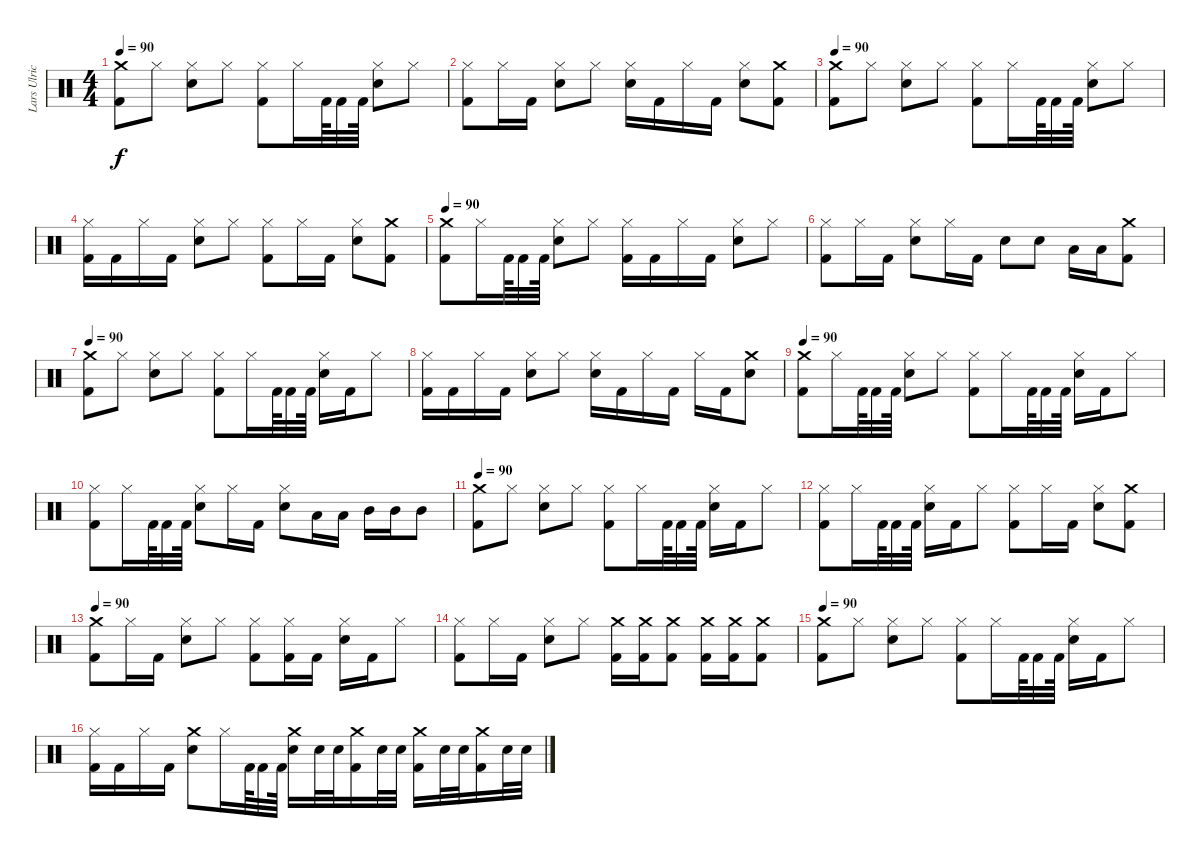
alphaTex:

\track ("Lars Ulrich (Drums)" "Lars Ulric") {instrument percussion}
\staff {score}
\articulation defaults
\ts (4 4)
\tempo 90
\clef neutral
\ks c
("Crash medium (hit)" "Kick (hit) 2").8{dy f} "Hi-Hat (closed)".8 ("Snare (hit) 2" "Hi-Hat (closed)").8 "Hi-Hat (closed)".8 ("Hi-Hat (closed)" "Kick (hit) 2").8 "Hi-Hat (closed)".16 "Kick (hit) 2".64 "Kick (hit) 2".32 "Kick (hit) 2".64 ("Snare (hit) 2" "Hi-Hat (closed)").8 "Hi-Hat (closed)".8 |
("Hi-Hat (closed)" "Kick (hit) 2").8 "Hi-Hat (closed)".16 "Kick (hit) 2".16 ("Snare (hit) 2" "Hi-Hat (closed)").8 "Hi-Hat (closed)".8 ("Snare (hit) 2" "Hi-Hat (closed)").16 "Kick (hit) 2".16 "Hi-Hat (closed)".16 "Kick (hit) 2".16 ("Snare (hit) 2" "Hi-Hat (closed)").8 ("Crash medium (hit)" "Kick (hit) 2").8 |
\tempo 90
("Kick (hit) 2" "Crash medium (hit)").8 "Hi-Hat (closed)".8 ("Snare (hit) 2" "Hi-Hat (closed)").8 "Hi-Hat (closed)".8 ("Hi-Hat (closed)" "Kick (hit) 2").8 "Hi-Hat (closed)".16 "Kick (hit) 2".64 "Kick (hit) 2".32 "Kick (hit) 2".64 ("Snare (hit) 2" "Hi-Hat (closed)").8 "Hi-Hat (closed)".8 |
("Kick (hit) 2" "Hi-Hat (closed)").16 "Kick (hit) 2".16 "Hi-Hat (closed)".16 "Kick (hit) 2".16 ("Snare (hit) 2" "Hi-Hat (closed)").8 "Hi-Hat (closed)".8 ("Kick (hit) 2" "Hi-Hat (closed)").8 "Hi-Hat (closed)".16 "Kick (hit) 2".16 ("Snare (hit) 2" "Hi-Hat (closed)").8 ("Kick (hit) 2" "Crash medium (hit)").8 |
\tempo 90
("Crash medium (hit)" "Kick (hit) 2").8 "Hi-Hat (closed)".16 "Kick (hit) 2".64 "Kick (hit) 2".32 "Kick (hit) 2".64 ("Snare (hit) 2" "Hi-Hat (closed)").8 "Hi-Hat (closed)".8 ("Kick (hit) 2" "Hi-Hat (closed)").16 "Kick (hit) 2".16 "Hi-Hat (closed)".16 "Kick (hit) 2".16 ("Snare (hit) 2" "Hi-Hat (closed)").8 "Hi-Hat (closed)".8 |
("Kick (hit) 2" "Hi-Hat (closed)").8 "Hi-Hat (closed)".16 "Kick (hit) 2".16 ("Snare (hit) 2" "Hi-Hat (closed)").8 "Hi-Hat (closed)".16 "Kick (hit) 2".16 "Snare (hit) 2".8 "Snare (hit) 2".8 "Low Tom (hit)".16 "Low Tom (hit)".16 ("Crash medium (hit)" "Kick (hit) 2").8 |
\tempo 90
("Crash medium (hit)" "Kick (hit) 2").8 "Hi-Hat (closed)".8 ("Snare (hit) 2" "Hi-Hat (closed)").8 "Hi-Hat (closed)".8 ("Hi-Hat (closed)" "Kick (hit) 2").8 "Hi-Hat (closed)".16 "Kick (hit) 2".64 "Kick (hit) 2".32 "Kick (hit) 2".64 ("Snare (hit) 2" "Hi-Hat (closed)").16 "Kick (hit) 2".16 "Hi-Hat (closed)".8 |
("Kick (hit) 2" "Hi-Hat (closed)").16 "Kick (hit) 2".16 "Hi-Hat (closed)".16 "Kick (hit) 2".16 ("Snare (hit) 2" "Hi-Hat (closed)").8 "Hi-Hat (closed)".8 ("Hi-Hat (closed)" "Snare (hit) 2").16 "Kick (hit) 2".16 "Hi-Hat (closed)".16 "Kick (hit) 2".16 "Hi-Hat (closed)".16 "Kick (hit) 2".16 ("Crash medium (hit)" "Snare (hit) 2").8 |
\tempo 90
("Crash medium (hit)" "Kick (hit) 2").8 "Hi-Hat (closed)".16 "Kick (hit) 2".64 "Kick (hit) 2".32 "Kick (hit) 2".64 ("Snare (hit) 2" "Hi-Hat (closed)").8 "Hi-Hat (closed)".8 ("Hi-Hat (closed)" "Kick (hit) 2").8 "Hi-Hat (closed)".16 "Kick (hit) 2".64 "Kick (hit) 2".32 "Kick (hit) 2".64 ("Snare (hit) 2" "Hi-Hat (closed)").16 "Kick (hit) 2".16 "Hi-Hat (closed)".8 |
("Hi-Hat (closed)" "Kick (hit) 2").8 "Hi-Hat (closed)".16 "Kick (hit) 2".64 "Kick (hit) 2".32 "Kick (hit) 2".64 ("Snare (hit) 2" "Hi-Hat (closed)").8 "Hi-Hat (closed)".16 "Kick (hit) 2".16 ("Snare (hit) 2" "Hi-Hat (closed)").8 "Low Tom (hit)".16 "Low Tom (hit)".16 "Mid Tom (hit)".16 "Mid Tom (hit)".16 "Mid Tom (hit)".8 |
\tempo 90
("Crash medium (hit)" "Kick (hit) 2").8 "Hi-Hat (closed)".8 ("Snare (hit) 2" "Hi-Hat (closed)").8 "Hi-Hat (closed)".8 ("Hi-Hat (closed)" "Kick (hit) 2").8 "Hi-Hat (closed)".16 "Kick (hit) 2".64 "Kick (hit) 2".32 "Kick (hit) 2".64 ("Snare (hit) 2" "Hi-Hat (closed)").16 "Kick (hit) 2".16 "Hi-Hat (closed)".8 |
("Hi-Hat (closed)" "Kick (hit) 2").8 "Hi-Hat (closed)".16 "Kick (hit) 2".64 "Kick (hit) 2".32 "Kick (hit) 2".64 ("Snare (hit) 2" "Hi-Hat (closed)").16 "Kick (hit) 2".16 "Hi-Hat (closed)".8 ("Hi-Hat (closed)" "Kick (hit) 2").8 "Hi-Hat (closed)".16 "Kick (hit) 2".16 ("Snare (hit) 2" "Hi-Hat (closed)").8 ("Crash medium (hit)" "Kick (hit) 2").8 |
\tempo 90
("Kick (hit) 2" "Crash medium (hit)").8 "Hi-Hat (closed)".16 "Kick (hit) 2".16 ("Snare (hit) 2" "Hi-Hat (closed)").8 "Hi-Hat (closed)".8 ("Hi-Hat (closed)" "Kick (hit) 2").8 ("Hi-Hat (closed)" "Kick (hit) 2").16 "Kick (hit) 2".16 ("Snare (hit) 2" "Hi-Hat (closed)").16 "Kick (hit) 2".16 "Hi-Hat (closed)".8 |
("Hi-Hat (closed)" "Kick (hit) 2").8 "Hi-Hat (closed)".16 "Kick (hit) 2".16 ("Snare (hit) 2" "Hi-Hat (closed)").8 "Hi-Hat (closed)".8 ("Kick (hit) 2" "Crash medium (hit)").16 ("Kick (hit) 2" "Crash medium (hit)").16 ("Kick (hit) 2" "Crash medium (hit)").8 ("Kick (hit) 2" "Crash medium (hit)").16 ("Kick (hit) 2" "Crash medium (hit)").16 ("Kick (hit) 2" "Crash medium (hit)").8 |
\tempo 90
("Crash medium (hit)" "Kick (hit) 2").8 "Hi-Hat (closed)".8 ("Snare (hit) 2" "Hi-Hat (closed)").8 "Hi-Hat (closed)".8 ("Hi-Hat (closed)" "Kick (hit) 2").8 "Hi-Hat (closed)".16 "Kick (hit) 2".64 "Kick (hit) 2".32 "Kick (hit) 2".64 ("Snare (hit) 2" "Hi-Hat (closed)").16 "Kick (hit) 2".16 "Hi-Hat (closed)".8 |
("Hi-Hat (closed)" "Kick (hit) 2").16 "Kick (hit) 2".16 "Hi-Hat (closed)".16 "Kick (hit) 2".16 ("Crash medium (hit)" "Snare (hit) 2").8 "Hi-Hat (closed)".16 "Kick (hit) 2".64 "Kick (hit) 2".32 "Kick (hit) 2".64 ("Snare (hit) 2" "Crash medium (hit)").16 "Snare (hit) 2".32 "Snare (hit) 2".32 ("Crash medium (hit)" "Kick (hit) 2").16 "Snare (hit) 2".32 "Snare (hit) 2".32 ("Crash medium (hit)" "Kick (hit) 2").16 "Snare (hit) 2".32 "Snare (hit) 2".32 ("Crash medium (hit)" "Kick (hit) 2").16 "Snare (hit) 2".32 "Snare (hit) 2".32
